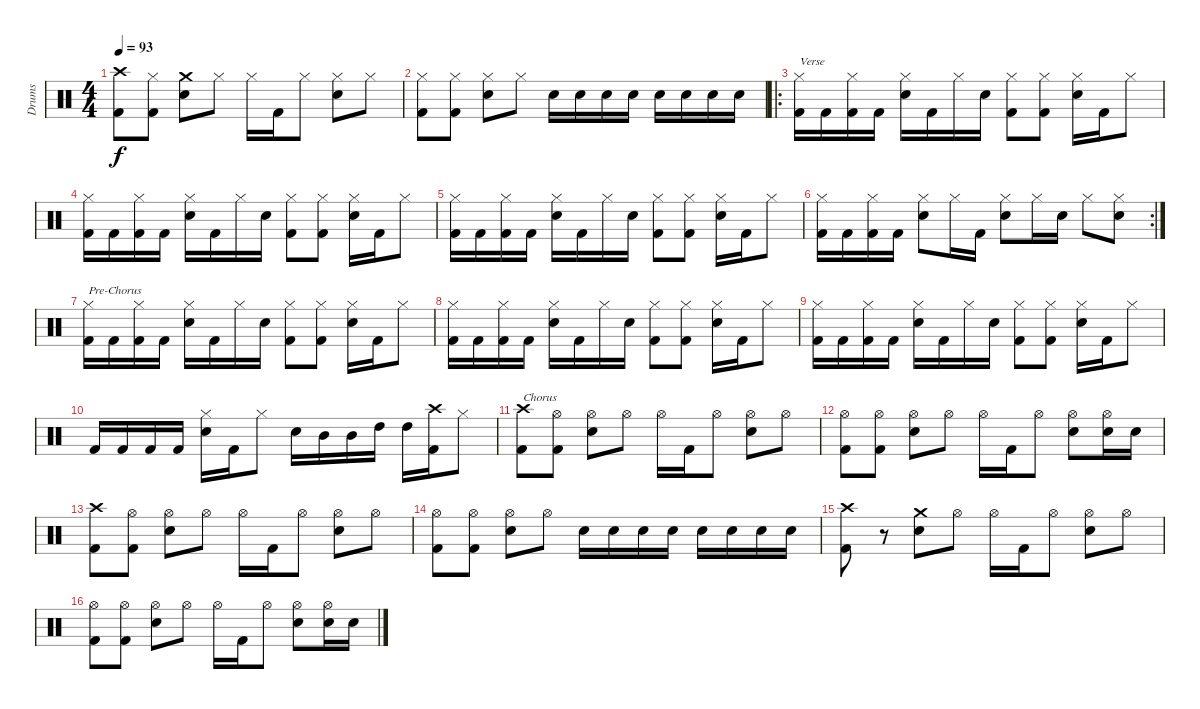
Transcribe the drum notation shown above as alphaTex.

\track ("Drums" "Drums") {instrument percussion}
\staff {score}
\articulation defaults
\ts (4 4)
\tempo 93
\clef neutral
\ks c
("Crash high (hit)" "Kick (hit) 2").8{dy f} ("Hi-Hat (closed)" "Kick (hit) 2").8 ("Crash medium (hit)" "Electric Snare (hit)").8 "Hi-Hat (closed)".8 "Hi-Hat (closed)".16 "Kick (hit) 2".16 "Hi-Hat (closed)".8 ("Hi-Hat (closed)" "Electric Snare (hit)").8 "Hi-Hat (closed)".8 |
("Hi-Hat (closed)" "Kick (hit) 2").8 ("Hi-Hat (closed)" "Kick (hit) 2").8 ("Hi-Hat (closed)" "Electric Snare (hit)").8 "Hi-Hat (closed)".8 "Electric Snare (hit)".16 "Electric Snare (hit)".16 "Electric Snare (hit)".16 "Electric Snare (hit)".16 "Electric Snare (hit)".16 "Electric Snare (hit)".16 "Electric Snare (hit)".16 "Electric Snare (hit)".16 |
\ro
("Hi-Hat (closed)" "Kick (hit) 2").16{txt "Verse"} "Kick (hit) 2".16 ("Hi-Hat (closed)" "Kick (hit) 2").16 "Kick (hit) 2".16 ("Hi-Hat (closed)" "Electric Snare (hit)").16 "Kick (hit) 2".16 "Hi-Hat (closed)".16 "Electric Snare (hit)".16 ("Hi-Hat (closed)" "Kick (hit) 2").8 ("Hi-Hat (closed)" "Kick (hit) 2").8 ("Hi-Hat (closed)" "Electric Snare (hit)").16 "Kick (hit) 2".16 "Hi-Hat (closed)".8 |
("Hi-Hat (closed)" "Kick (hit) 2").16 "Kick (hit) 2".16 ("Hi-Hat (closed)" "Kick (hit) 2").16 "Kick (hit) 2".16 ("Hi-Hat (closed)" "Electric Snare (hit)").16 "Kick (hit) 2".16 "Hi-Hat (closed)".16 "Electric Snare (hit)".16 ("Hi-Hat (closed)" "Kick (hit) 2").8 ("Hi-Hat (closed)" "Kick (hit) 2").8 ("Hi-Hat (closed)" "Electric Snare (hit)").16 "Kick (hit) 2".16 "Hi-Hat (closed)".8 |
("Hi-Hat (closed)" "Kick (hit) 2").16 "Kick (hit) 2".16 ("Hi-Hat (closed)" "Kick (hit) 2").16 "Kick (hit) 2".16 ("Hi-Hat (closed)" "Electric Snare (hit)").16 "Kick (hit) 2".16 "Hi-Hat (closed)".16 "Electric Snare (hit)".16 ("Hi-Hat (closed)" "Kick (hit) 2").8 ("Hi-Hat (closed)" "Kick (hit) 2").8 ("Hi-Hat (closed)" "Electric Snare (hit)").16 "Kick (hit) 2".16 "Hi-Hat (closed)".8 |
\rc 2
("Hi-Hat (closed)" "Kick (hit) 2").16 "Kick (hit) 2".16 ("Hi-Hat (closed)" "Kick (hit) 2").16 "Kick (hit) 2".16 ("Hi-Hat (closed)" "Electric Snare (hit)").8 "Hi-Hat (closed)".16 "Kick (hit) 2".16 ("Hi-Hat (closed)" "Electric Snare (hit)").8 "Hi-Hat (closed)".16 "Electric Snare (hit)".16 "Hi-Hat (closed)".8 ("Hi-Hat (closed)" "Electric Snare (hit)").8 |
("Hi-Hat (closed)" "Kick (hit) 2").16{txt "Pre-Chorus"} "Kick (hit) 2".16 ("Hi-Hat (closed)" "Kick (hit) 2").16 "Kick (hit) 2".16 ("Hi-Hat (closed)" "Electric Snare (hit)").16 "Kick (hit) 2".16 "Hi-Hat (closed)".16 "Electric Snare (hit)".16 ("Hi-Hat (closed)" "Kick (hit) 2").8 ("Hi-Hat (closed)" "Kick (hit) 2").8 ("Hi-Hat (closed)" "Electric Snare (hit)").16 "Kick (hit) 2".16 "Hi-Hat (closed)".8 |
("Hi-Hat (closed)" "Kick (hit) 2").16 "Kick (hit) 2".16 ("Hi-Hat (closed)" "Kick (hit) 2").16 "Kick (hit) 2".16 ("Hi-Hat (closed)" "Electric Snare (hit)").16 "Kick (hit) 2".16 "Hi-Hat (closed)".16 "Electric Snare (hit)".16 ("Hi-Hat (closed)" "Kick (hit) 2").8 ("Hi-Hat (closed)" "Kick (hit) 2").8 ("Hi-Hat (closed)" "Electric Snare (hit)").16 "Kick (hit) 2".16 "Hi-Hat (closed)".8 |
("Hi-Hat (closed)" "Kick (hit) 2").16 "Kick (hit) 2".16 ("Hi-Hat (closed)" "Kick (hit) 2").16 "Kick (hit) 2".16 ("Hi-Hat (closed)" "Electric Snare (hit)").16 "Kick (hit) 2".16 "Hi-Hat (closed)".16 "Electric Snare (hit)".16 ("Hi-Hat (closed)" "Kick (hit) 2").8 ("Hi-Hat (closed)" "Kick (hit) 2").8 ("Hi-Hat (closed)" "Electric Snare (hit)").16 "Kick (hit) 2".16 "Hi-Hat (closed)".8 |
"Kick (hit) 2".16 "Kick (hit) 2".16 "Kick (hit) 2".16 "Kick (hit) 2".16 ("Hi-Hat (closed)" "Electric Snare (hit)").16 "Kick (hit) 2".16 "Hi-Hat (closed)".8 "Electric Snare (hit)".16 "Mid Tom (hit)".16 "Mid Tom (hit)".16 "High Tom (hit)".16 "High Tom (hit)".16 ("Crash high (hit)" "Kick (hit) 2").16 "Hi-Hat (closed)".8 |
("Crash high (hit)" "Kick (hit) 2").8{txt "Chorus"} ("Hi-Hat (open)" "Kick (hit) 2").8 ("Hi-Hat (open)" "Electric Snare (hit)").8 "Hi-Hat (open)".8 "Hi-Hat (open)".16 "Kick (hit) 2".16 "Hi-Hat (open)".8 ("Hi-Hat (open)" "Electric Snare (hit)").8 "Hi-Hat (open)".8 |
("Hi-Hat (open)" "Kick (hit) 2").8 ("Hi-Hat (open)" "Kick (hit) 2").8 ("Hi-Hat (open)" "Electric Snare (hit)").8 "Hi-Hat (open)".8 "Hi-Hat (open)".16 "Kick (hit) 2".16 "Hi-Hat (open)".8 ("Hi-Hat (open)" "Electric Snare (hit)").8 ("Hi-Hat (open)" "Electric Snare (hit)").16 "Electric Snare (hit)".16 |
("Crash high (hit)" "Kick (hit) 2").8 ("Hi-Hat (open)" "Kick (hit) 2").8 ("Hi-Hat (open)" "Electric Snare (hit)").8 "Hi-Hat (open)".8 "Hi-Hat (open)".16 "Kick (hit) 2".16 "Hi-Hat (open)".8 ("Hi-Hat (open)" "Electric Snare (hit)").8 "Hi-Hat (open)".8 |
("Hi-Hat (open)" "Kick (hit) 2").8 ("Hi-Hat (open)" "Kick (hit) 2").8 ("Hi-Hat (open)" "Electric Snare (hit)").8 "Hi-Hat (open)".8 "Electric Snare (hit)".16 "Electric Snare (hit)".16 "Electric Snare (hit)".16 "Electric Snare (hit)".16 "Electric Snare (hit)".16 "Electric Snare (hit)".16 "Electric Snare (hit)".16 "Electric Snare (hit)".16 |
("Crash high (hit)" "Kick (hit) 2").8 r.8 ("Crash medium (hit)" "Electric Snare (hit)").8 "Hi-Hat (open)".8 "Hi-Hat (open)".16 "Kick (hit) 2".16 "Hi-Hat (open)".8 ("Hi-Hat (open)" "Electric Snare (hit)").8 "Hi-Hat (open)".8 |
("Hi-Hat (open)" "Kick (hit) 2").8 ("Hi-Hat (open)" "Kick (hit) 2").8 ("Hi-Hat (open)" "Electric Snare (hit)").8 "Hi-Hat (open)".8 "Hi-Hat (open)".16 "Kick (hit) 2".16 "Hi-Hat (open)".8 ("Hi-Hat (open)" "Electric Snare (hit)").8 ("Hi-Hat (open)" "Electric Snare (hit)").16 "Electric Snare (hit)".16
